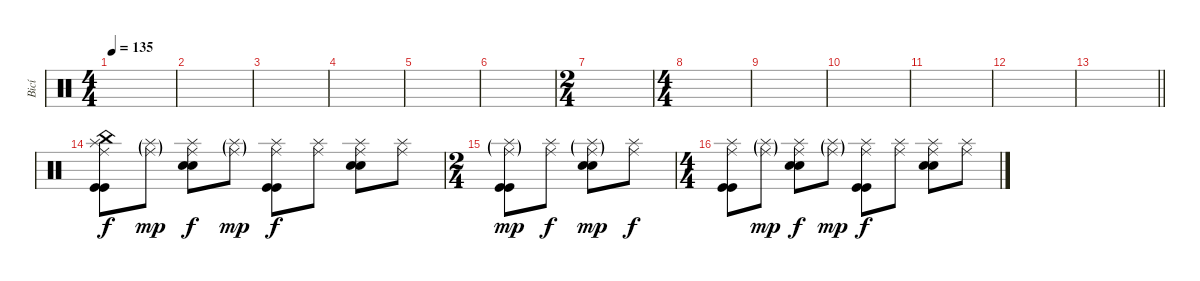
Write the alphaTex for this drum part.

\track ("Bicí" "Bicí") {instrument percussion}
\staff {score}
\articulation defaults
\ts (4 4)
\tempo 135
\clef neutral
\ks c
|
|
|
|
|
|
\ts (2 4)
|
\ts (4 4)
|
|
|
|
|
\barLineRight lightlight
|
\section ("" "")
("China (hit)" "Splash (hit)" "Ride (middle)" "Kick (hit)" "Kick (hit)").8 ("Splash (hit)"{g} "Ride (middle)"{g}).8{dy mp} ("Splash (hit)" "Ride (middle)" "Electric Snare (hit)" "Electric Snare (hit)").8{dy f} ("Splash (hit)"{g} "Ride (middle)"{g}).8{dy mp} ("Splash (hit)" "Ride (middle)" "Kick (hit)" "Kick (hit)").8{dy f} ("Splash (hit)" "Ride (middle)").8 ("Splash (hit)" "Ride (middle)" "Electric Snare (hit)" "Electric Snare (hit)").8 ("Splash (hit)" "Ride (middle)").8 |
\ts (2 4)
("Splash (hit)"{g} "Ride (middle)"{g} "Kick (hit)" "Kick (hit)").8{dy mp} ("Splash (hit)" "Ride (middle)").8{dy f} ("Splash (hit)"{g} "Ride (middle)"{g} "Electric Snare (hit)" "Electric Snare (hit)").8{dy mp} ("Splash (hit)" "Ride (middle)").8{dy f} |
\ts (4 4)
("Splash (hit)" "Ride (middle)" "Kick (hit)" "Kick (hit)").8 ("Splash (hit)"{g} "Ride (middle)"{g}).8{dy mp} ("Splash (hit)" "Ride (middle)" "Electric Snare (hit)" "Electric Snare (hit)").8{dy f} ("Splash (hit)"{g} "Ride (middle)"{g}).8{dy mp} ("Splash (hit)" "Ride (middle)" "Kick (hit)" "Kick (hit)").8{dy f} ("Splash (hit)" "Ride (middle)").8 ("Splash (hit)" "Ride (middle)" "Electric Snare (hit)" "Electric Snare (hit)").8 ("Splash (hit)" "Ride (middle)").8
